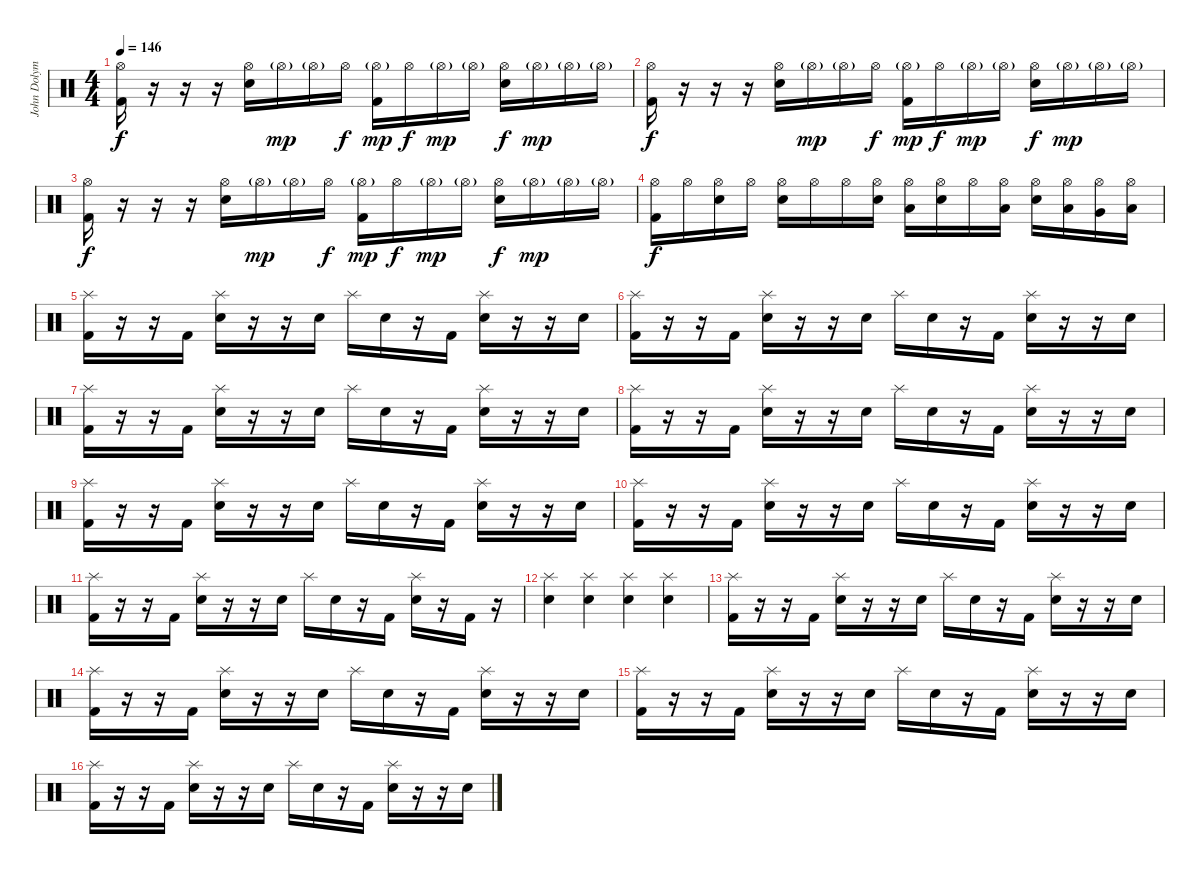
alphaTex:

\track ("John Dolyman" "John Dolym") {instrument percussion}
\staff {score}
\articulation defaults
\ts (4 4)
\tempo 146
\clef neutral
\ks c
("Hi-Hat (open)" "Kick (hit) 2").16{dy f} r.16 r.16 r.16 ("Hi-Hat (open)" "Electric Snare (hit)").16 "Hi-Hat (open)"{g}.16{dy mp} "Hi-Hat (open)"{g}.16 "Hi-Hat (open)".16{dy f} ("Hi-Hat (open)"{g} "Kick (hit) 2").16{dy mp} "Hi-Hat (open)".16{dy f} "Hi-Hat (open)"{g}.16{dy mp} "Hi-Hat (open)"{g}.16 ("Hi-Hat (open)" "Electric Snare (hit)").16{dy f} "Hi-Hat (open)"{g}.16{dy mp} "Hi-Hat (open)"{g}.16 "Hi-Hat (open)"{g}.16 |
("Hi-Hat (open)" "Kick (hit) 2").16{dy f} r.16 r.16 r.16 ("Hi-Hat (open)" "Electric Snare (hit)").16 "Hi-Hat (open)"{g}.16{dy mp} "Hi-Hat (open)"{g}.16 "Hi-Hat (open)".16{dy f} ("Hi-Hat (open)"{g} "Kick (hit) 2").16{dy mp} "Hi-Hat (open)".16{dy f} "Hi-Hat (open)"{g}.16{dy mp} "Hi-Hat (open)"{g}.16 ("Hi-Hat (open)" "Electric Snare (hit)").16{dy f} "Hi-Hat (open)"{g}.16{dy mp} "Hi-Hat (open)"{g}.16 "Hi-Hat (open)"{g}.16 |
("Hi-Hat (open)" "Kick (hit) 2").16{dy f} r.16 r.16 r.16 ("Hi-Hat (open)" "Electric Snare (hit)").16 "Hi-Hat (open)"{g}.16{dy mp} "Hi-Hat (open)"{g}.16 "Hi-Hat (open)".16{dy f} ("Hi-Hat (open)"{g} "Kick (hit) 2").16{dy mp} "Hi-Hat (open)".16{dy f} "Hi-Hat (open)"{g}.16{dy mp} "Hi-Hat (open)"{g}.16 ("Hi-Hat (open)" "Electric Snare (hit)").16{dy f} "Hi-Hat (open)"{g}.16{dy mp} "Hi-Hat (open)"{g}.16 "Hi-Hat (open)"{g}.16 |
("Hi-Hat (open)" "Kick (hit) 2").16{dy f} "Hi-Hat (open)".16 ("Hi-Hat (open)" "Electric Snare (hit)").16 "Hi-Hat (open)".16 ("Hi-Hat (open)" "Electric Snare (hit)").16 "Hi-Hat (open)".16 "Hi-Hat (open)".16 ("Hi-Hat (open)" "Electric Snare (hit)").16 ("Hi-Hat (open)" "Low Floor Tom (hit)").16 ("Hi-Hat (open)" "Electric Snare (hit)").16 "Hi-Hat (open)".16 ("Hi-Hat (open)" "Low Floor Tom (hit)").16 ("Hi-Hat (open)" "Electric Snare (hit)").16 ("Hi-Hat (open)" "Low Tom (hit)").16 ("Hi-Hat (open)" "Very Low Tom (hit)").16 ("Hi-Hat (open)" "Low Floor Tom (hit)").16 |
("Splash (hit)" "Kick (hit) 2").16 r.16 r.16 "Kick (hit) 2".16 ("Splash (hit)" "Electric Snare (hit)").16 r.16 r.16 "Electric Snare (hit)".16 "Splash (hit)".16 "Electric Snare (hit)".16 r.16 "Kick (hit) 2".16 ("Splash (hit)" "Electric Snare (hit)").16 r.16 r.16 "Electric Snare (hit)".16 |
("Splash (hit)" "Kick (hit) 2").16 r.16 r.16 "Kick (hit) 2".16 ("Splash (hit)" "Electric Snare (hit)").16 r.16 r.16 "Electric Snare (hit)".16 "Splash (hit)".16 "Electric Snare (hit)".16 r.16 "Kick (hit) 2".16 ("Splash (hit)" "Electric Snare (hit)").16 r.16 r.16 "Electric Snare (hit)".16 |
("Splash (hit)" "Kick (hit) 2").16 r.16 r.16 "Kick (hit) 2".16 ("Splash (hit)" "Electric Snare (hit)").16 r.16 r.16 "Electric Snare (hit)".16 "Splash (hit)".16 "Electric Snare (hit)".16 r.16 "Kick (hit) 2".16 ("Splash (hit)" "Electric Snare (hit)").16 r.16 r.16 "Electric Snare (hit)".16 |
("Splash (hit)" "Kick (hit) 2").16 r.16 r.16 "Kick (hit) 2".16 ("Splash (hit)" "Electric Snare (hit)").16 r.16 r.16 "Electric Snare (hit)".16 "Splash (hit)".16 "Electric Snare (hit)".16 r.16 "Kick (hit) 2".16 ("Splash (hit)" "Electric Snare (hit)").16 r.16 r.16 "Electric Snare (hit)".16 |
("Splash (hit)" "Kick (hit) 2").16 r.16 r.16 "Kick (hit) 2".16 ("Splash (hit)" "Electric Snare (hit)").16 r.16 r.16 "Electric Snare (hit)".16 "Splash (hit)".16 "Electric Snare (hit)".16 r.16 "Kick (hit) 2".16 ("Splash (hit)" "Electric Snare (hit)").16 r.16 r.16 "Electric Snare (hit)".16 |
("Splash (hit)" "Kick (hit) 2").16 r.16 r.16 "Kick (hit) 2".16 ("Splash (hit)" "Electric Snare (hit)").16 r.16 r.16 "Electric Snare (hit)".16 "Splash (hit)".16 "Electric Snare (hit)".16 r.16 "Kick (hit) 2".16 ("Splash (hit)" "Electric Snare (hit)").16 r.16 r.16 "Electric Snare (hit)".16 |
("Splash (hit)" "Kick (hit) 2").16 r.16 r.16 "Kick (hit) 2".16 ("Splash (hit)" "Electric Snare (hit)").16 r.16 r.16 "Electric Snare (hit)".16 "Splash (hit)".16 "Electric Snare (hit)".16 r.16 "Kick (hit) 2".16 ("Splash (hit)" "Electric Snare (hit)").16 r.16 "Kick (hit) 2".16 r.16 |
("Splash (hit)" "Electric Snare (hit)").4 ("Splash (hit)" "Electric Snare (hit)").4 ("Splash (hit)" "Electric Snare (hit)").4 ("Splash (hit)" "Electric Snare (hit)").4 |
("Splash (hit)" "Kick (hit) 2").16 r.16 r.16 "Kick (hit) 2".16 ("Splash (hit)" "Electric Snare (hit)").16 r.16 r.16 "Electric Snare (hit)".16 "Splash (hit)".16 "Electric Snare (hit)".16 r.16 "Kick (hit) 2".16 ("Splash (hit)" "Electric Snare (hit)").16 r.16 r.16 "Electric Snare (hit)".16 |
("Splash (hit)" "Kick (hit) 2").16 r.16 r.16 "Kick (hit) 2".16 ("Splash (hit)" "Electric Snare (hit)").16 r.16 r.16 "Electric Snare (hit)".16 "Splash (hit)".16 "Electric Snare (hit)".16 r.16 "Kick (hit) 2".16 ("Splash (hit)" "Electric Snare (hit)").16 r.16 r.16 "Electric Snare (hit)".16 |
("Splash (hit)" "Kick (hit) 2").16 r.16 r.16 "Kick (hit) 2".16 ("Splash (hit)" "Electric Snare (hit)").16 r.16 r.16 "Electric Snare (hit)".16 "Splash (hit)".16 "Electric Snare (hit)".16 r.16 "Kick (hit) 2".16 ("Splash (hit)" "Electric Snare (hit)").16 r.16 r.16 "Electric Snare (hit)".16 |
("Splash (hit)" "Kick (hit) 2").16 r.16 r.16 "Kick (hit) 2".16 ("Splash (hit)" "Electric Snare (hit)").16 r.16 r.16 "Electric Snare (hit)".16 "Splash (hit)".16 "Electric Snare (hit)".16 r.16 "Kick (hit) 2".16 ("Splash (hit)" "Electric Snare (hit)").16 r.16 r.16 "Electric Snare (hit)".16
